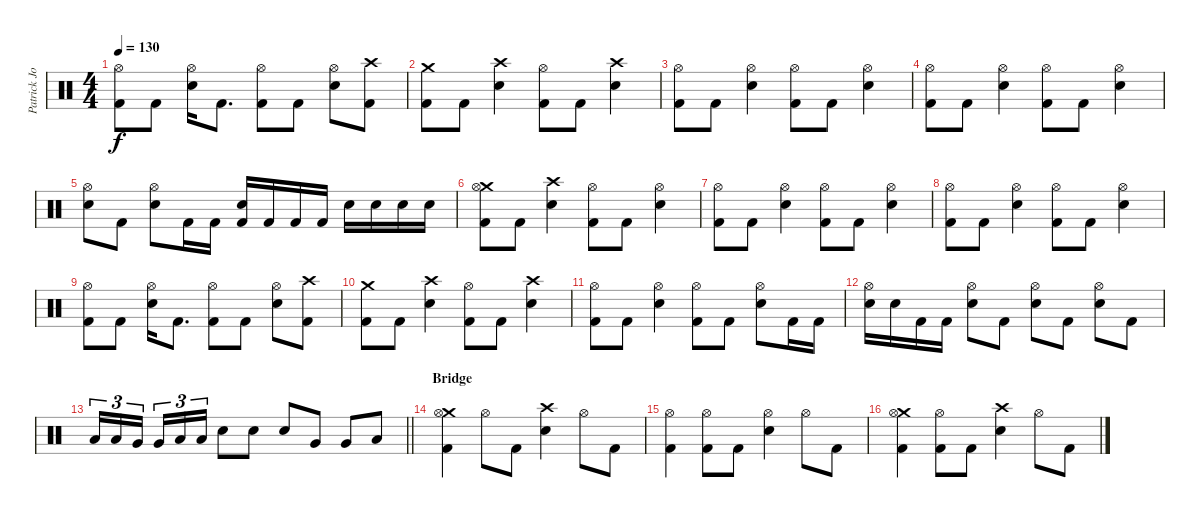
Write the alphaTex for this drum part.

\track ("Patrick Johansson " "Patrick Jo") {instrument percussion}
\staff {score}
\articulation defaults
\ts (4 4)
\tempo 130
\clef neutral
\ks c
("Hi-Hat (open)" "Kick (hit) 2").8{dy f} "Kick (hit) 2".8 ("Hi-Hat (open)" "Snare (hit) 2").16 "Kick (hit) 2".8{d} ("Hi-Hat (open)" "Kick (hit) 2").8 "Kick (hit) 2".8 ("Hi-Hat (open)" "Snare (hit) 2").8 ("Crash high (hit)" "Kick (hit) 2").8 |
("Crash medium (hit)" "Kick (hit) 2").8 "Kick (hit) 2".8 ("Crash high (hit)" "Snare (hit) 2").4 ("Hi-Hat (open)" "Kick (hit) 2").8 "Kick (hit) 2".8 ("Crash high (hit)" "Snare (hit) 2").4 |
("Hi-Hat (open)" "Kick (hit) 2").8 "Kick (hit) 2".8 ("Hi-Hat (open)" "Snare (hit) 2").4 ("Hi-Hat (open)" "Kick (hit) 2").8 "Kick (hit) 2".8 ("Hi-Hat (open)" "Snare (hit) 2").4 |
("Hi-Hat (open)" "Kick (hit) 2").8 "Kick (hit) 2".8 ("Hi-Hat (open)" "Snare (hit) 2").4 ("Hi-Hat (open)" "Kick (hit) 2").8 "Kick (hit) 2".8 ("Hi-Hat (open)" "Snare (hit) 2").4 |
("Hi-Hat (open)" "Snare (hit) 2").8 "Kick (hit) 2".8 ("Hi-Hat (open)" "Snare (hit) 2").8 "Kick (hit) 2".16 "Kick (hit) 2".16 ("Snare (hit) 2" "Kick (hit) 2").16 "Kick (hit) 2".16 "Kick (hit) 2".16 "Kick (hit) 2".16 "Snare (hit) 2".16 "Snare (hit) 2".16 "Snare (hit) 2".16 "Snare (hit) 2".16 |
("Crash medium (hit)" "Hi-Hat (open)" "Kick (hit) 2").8 "Kick (hit) 2".8 ("Crash high (hit)" "Snare (hit) 2").4 ("Hi-Hat (open)" "Kick (hit) 2").8 "Kick (hit) 2".8 ("Hi-Hat (open)" "Snare (hit) 2").4 |
("Hi-Hat (open)" "Kick (hit) 2").8 "Kick (hit) 2".8 ("Hi-Hat (open)" "Snare (hit) 2").4 ("Hi-Hat (open)" "Kick (hit) 2").8 "Kick (hit) 2".8 ("Hi-Hat (open)" "Snare (hit) 2").4 |
("Hi-Hat (open)" "Kick (hit) 2").8 "Kick (hit) 2".8 ("Hi-Hat (open)" "Snare (hit) 2").4 ("Hi-Hat (open)" "Kick (hit) 2").8 "Kick (hit) 2".8 ("Hi-Hat (open)" "Snare (hit) 2").4 |
("Hi-Hat (open)" "Kick (hit) 2").8 "Kick (hit) 2".8 ("Hi-Hat (open)" "Snare (hit) 2").16 "Kick (hit) 2".8{d} ("Hi-Hat (open)" "Kick (hit) 2").8 "Kick (hit) 2".8 ("Hi-Hat (open)" "Snare (hit) 2").8 ("Crash high (hit)" "Kick (hit) 2").8 |
("Crash medium (hit)" "Kick (hit) 2").8 "Kick (hit) 2".8 ("Crash high (hit)" "Snare (hit) 2").4 ("Hi-Hat (open)" "Kick (hit) 2").8 "Kick (hit) 2".8 ("Crash high (hit)" "Snare (hit) 2").4 |
("Hi-Hat (open)" "Kick (hit) 2").8 "Kick (hit) 2".8 ("Hi-Hat (open)" "Snare (hit) 2").4 ("Hi-Hat (open)" "Kick (hit) 2").8 "Kick (hit) 2".8 ("Hi-Hat (open)" "Snare (hit) 2").8 "Kick (hit) 2".16 "Kick (hit) 2".16 |
("Hi-Hat (open)" "Snare (hit) 2").16 "Snare (hit) 2".16 "Kick (hit) 2".16 "Kick (hit) 2".16 ("Hi-Hat (open)" "Snare (hit) 2").8 "Kick (hit) 2".8 ("Hi-Hat (open)" "Snare (hit) 2").8 "Kick (hit) 2".8 ("Hi-Hat (open)" "Snare (hit) 2").8 "Kick (hit) 2".8 |
\barLineRight lightlight "Low Tom (hit)".16{tu (3 2)} "Low Tom (hit)".16{tu (3 2)} "Very Low Tom (hit)".16{tu (3 2) beam splitsecondary} "Very Low Tom (hit)".16{tu (3 2)} "Low Floor Tom (hit)".16{tu (3 2)} "Low Floor Tom (hit)".16{tu (3 2)} "Snare (hit) 2".8 "Snare (hit) 2".8 "Snare (hit) 2".8 "Very Low Tom (hit)".8 "Very Low Tom (hit)".8 "Low Floor Tom (hit)".8
|
\section ("" "Bridge")
("Crash medium (hit)" "Hi-Hat (open)" "Kick (hit) 2").4 "Hi-Hat (open)".8 "Kick (hit) 2".8 ("Crash high (hit)" "Snare (hit) 2").4 "Hi-Hat (open)".8 "Kick (hit) 2".8 |
("Hi-Hat (open)" "Kick (hit) 2").4 ("Hi-Hat (open)" "Kick (hit) 2").8 "Kick (hit) 2".8 ("Hi-Hat (open)" "Snare (hit) 2").4 "Hi-Hat (open)".8 "Kick (hit) 2".8 |
("Crash medium (hit)" "Hi-Hat (open)" "Kick (hit) 2").4 ("Hi-Hat (open)" "Kick (hit) 2").8 "Kick (hit) 2".8 ("Crash high (hit)" "Snare (hit) 2").4 "Hi-Hat (open)".8 "Kick (hit) 2".8
